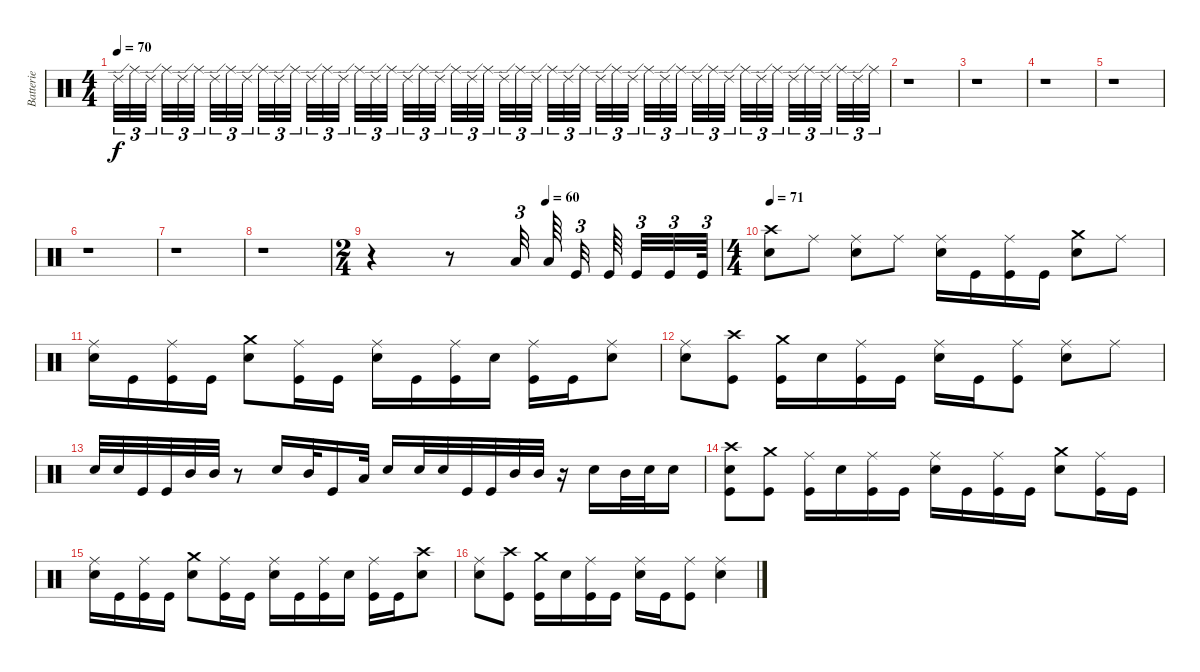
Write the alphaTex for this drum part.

\track ("Batterie" "Batterie") {instrument percussion}
\staff {score}
\articulation defaults
\ts (4 4)
\tempo 70
\clef neutral
\ks c "Ride (edge) 2".32{tu (3 2) dy f} "Ride (middle)".32{tu (3 2)} "Ride (edge) 2".32{tu (3 2)} "Ride (middle)".32{tu (3 2)} "Ride (edge) 2".32{tu (3 2)} "Ride (middle)".32{tu (3 2)} "Ride (edge) 2".32{tu (3 2)} "Ride (middle)".32{tu (3 2)} "Ride (edge) 2".32{tu (3 2)} "Ride (middle)".32{tu (3 2)} "Ride (edge) 2".32{tu (3 2)} "Ride (middle)".32{tu (3 2)} "Ride (edge) 2".32{tu (3 2)} "Ride (middle)".32{tu (3 2)} "Ride (edge) 2".32{tu (3 2)} "Ride (middle)".32{tu (3 2)} "Ride (edge) 2".32{tu (3 2)} "Ride (middle)".32{tu (3 2)} "Ride (edge) 2".32{tu (3 2)} "Ride (middle)".32{tu (3 2)} "Ride (edge) 2".32{tu (3 2)} "Ride (middle)".32{tu (3 2)} "Ride (edge) 2".32{tu (3 2)} "Ride (middle)".32{tu (3 2)} "Ride (edge) 2".32{tu (3 2)} "Ride (middle)".32{tu (3 2)} "Ride (edge) 2".32{tu (3 2)} "Ride (middle)".32{tu (3 2)} "Ride (edge) 2".32{tu (3 2)} "Ride (middle)".32{tu (3 2)} "Ride (edge) 2".32{tu (3 2)} "Ride (middle)".32{tu (3 2)} "Ride (edge) 2".32{tu (3 2)} "Ride (middle)".32{tu (3 2)} "Ride (edge) 2".32{tu (3 2)} "Ride (middle)".32{tu (3 2)} "Ride (edge) 2".32{tu (3 2)} "Ride (middle)".32{tu (3 2)} "Ride (edge) 2".32{tu (3 2)} "Ride (middle)".32{tu (3 2)} "Ride (edge) 2".32{tu (3 2)} "Ride (middle)".32{tu (3 2)} "Ride (edge) 2".32{tu (3 2)} "Ride (middle)".32{tu (3 2)} "Ride (edge) 2".32{tu (3 2)} "Ride (middle)".32{tu (3 2)} "Ride (edge) 2".32{tu (3 2)} "Ride (middle)".32{tu (3 2)}
|
r.1 |
r.1 |
r.1 |
r.1 |
r.1 |
r.1 |
r.1 |
\ts (2 4)
\tempo (60 0.5)
r.4{volume 16} r.8 "Low Floor Tom (hit)".32{tu (3 2)} "Low Floor Tom (hit)".64 "Kick (hit)".32{tu (3 2)} "Kick (hit)".64 "Kick (hit)".32{tu (3 2)} "Kick (hit)".32{tu (3 2)} "Kick (hit)".64{tu (3 2)} |
\ts (4 4)
\tempo 68
\tempo 71
("Crash high (hit)" "Electric Snare (hit)").8 "Ride (middle)".8 ("Ride (middle)" "Electric Snare (hit)").8 "Ride (middle)".8 ("Ride (middle)" "Electric Snare (hit)").16 "Kick (hit)".16 ("Ride (middle)" "Kick (hit)").16 "Kick (hit)".16 ("Crash medium (hit)" "Electric Snare (hit)").8 "Ride (middle)".8 |
("Ride (middle)" "Electric Snare (hit)").16 "Kick (hit)".16 ("Ride (middle)" "Kick (hit)").16 "Kick (hit)".16 ("Crash medium (hit)" "Electric Snare (hit)").8 ("Ride (middle)" "Kick (hit)").16 "Kick (hit)".16 ("Ride (middle)" "Electric Snare (hit)").16 "Kick (hit)".16 ("Ride (middle)" "Kick (hit)").16 "Electric Snare (hit)".16 ("Ride (middle)" "Kick (hit)").16 "Kick (hit)".16 ("Ride (middle)" "Electric Snare (hit)").8 |
("Ride (middle)" "Electric Snare (hit)").8 ("Crash high (hit)" "Kick (hit)").8 ("Crash medium (hit)" "Kick (hit)").16 "Electric Snare (hit)".16 ("Ride (middle)" "Kick (hit)").16 "Kick (hit)".16 ("Ride (middle)" "Electric Snare (hit)").16 "Kick (hit)".16 ("Ride (middle)" "Kick (hit)").8 ("Ride (middle)" "Electric Snare (hit)").8 "Ride (middle)".8 |
"Electric Snare (hit)".32 "Electric Snare (hit)".32 "Kick (hit)".32 "Kick (hit)".32 "Mid Tom (hit)".32 "Mid Tom (hit)".32 r.8 "Electric Snare (hit)".16 "Mid Tom (hit)".32 "Kick (hit)".16 "Low Tom (hit)".32 "Electric Snare (hit)".16 "Electric Snare (hit)".32 "Electric Snare (hit)".32 "Kick (hit)".32 "Kick (hit)".32 "Mid Tom (hit)".32 "Mid Tom (hit)".32 r.16 "Electric Snare (hit)".16 "Mid Tom (hit)".32 "Electric Snare (hit)".32 "Electric Snare (hit)".16 |
("Crash high (hit)" "Electric Snare (hit)" "Kick (hit)").8 ("Crash medium (hit)" "Kick (hit)").8 ("Ride (middle)" "Kick (hit)").16 "Electric Snare (hit)".16 ("Ride (middle)" "Kick (hit)").16 "Kick (hit)".16 ("Ride (middle)" "Electric Snare (hit)").16 "Kick (hit)".16 ("Ride (middle)" "Kick (hit)").16 "Kick (hit)".16 ("Crash medium (hit)" "Electric Snare (hit)").8 ("Ride (middle)" "Kick (hit)").16 "Kick (hit)".16 |
("Ride (middle)" "Electric Snare (hit)").16 "Kick (hit)".16 ("Ride (middle)" "Kick (hit)").16 "Kick (hit)".16 ("Crash medium (hit)" "Electric Snare (hit)").8 ("Ride (middle)" "Kick (hit)").16 "Kick (hit)".16 ("Ride (middle)" "Electric Snare (hit)").16 "Kick (hit)".16 ("Ride (middle)" "Kick (hit)").16 "Electric Snare (hit)".16 ("Ride (middle)" "Kick (hit)").16 "Kick (hit)".16 ("Crash high (hit)" "Electric Snare (hit)").8 |
("Ride (middle)" "Electric Snare (hit)").8 ("Crash high (hit)" "Kick (hit)").8 ("Crash medium (hit)" "Kick (hit)").16 "Electric Snare (hit)".16 ("Ride (middle)" "Kick (hit)").16 "Kick (hit)".16 ("Ride (middle)" "Electric Snare (hit)").16 "Kick (hit)".16 ("Ride (middle)" "Kick (hit)").8 ("Ride (middle)" "Electric Snare (hit)").4
